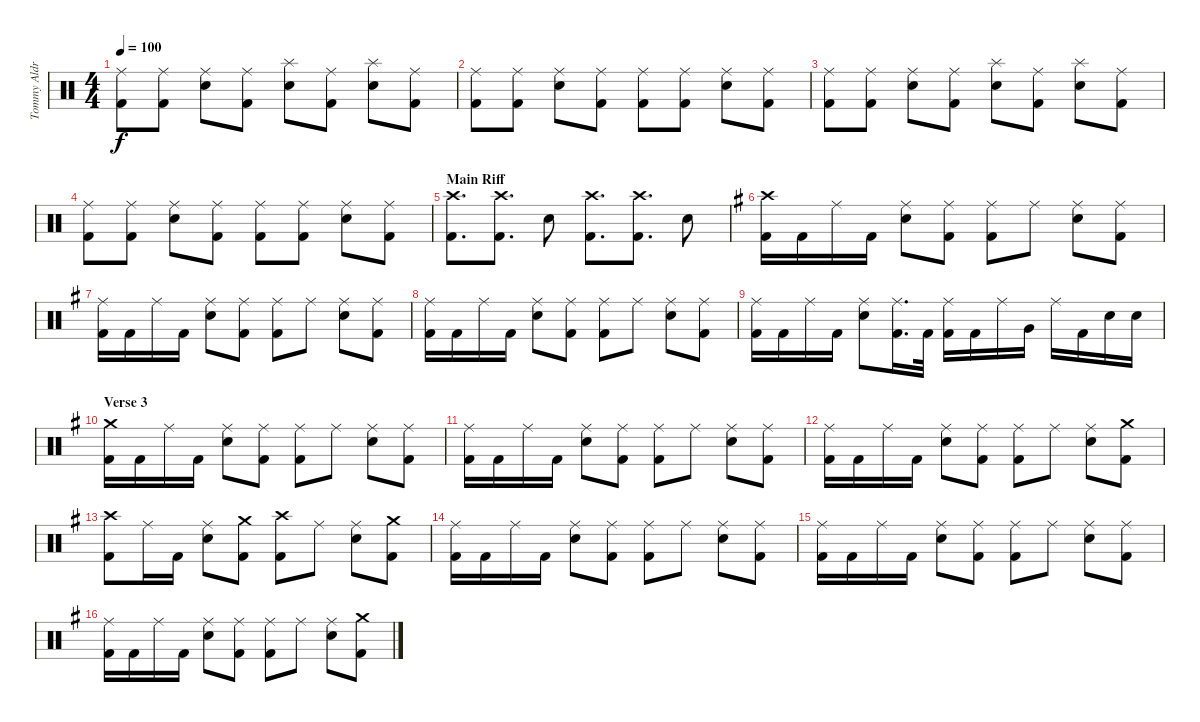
\track ("Tommy Aldridge" "Tommy Aldr") {instrument percussion}
\staff {score}
\articulation defaults
\ts (4 4)
\tempo 100
\clef neutral
\ks aminor
("Ride (middle)" "Kick (hit) 2").8{dy f} ("Ride (middle)" "Kick (hit) 2").8 ("Ride (middle)" "Electric Snare (hit)").8 ("Ride (middle)" "Kick (hit) 2").8 ("Splash (hit)" "Electric Snare (hit)").8 ("Ride (middle)" "Kick (hit) 2").8 ("Splash (hit)" "Electric Snare (hit)").8 ("Ride (middle)" "Kick (hit) 2").8 |
("Ride (middle)" "Kick (hit) 2").8 ("Ride (middle)" "Kick (hit) 2").8 ("Ride (middle)" "Electric Snare (hit)").8 ("Ride (middle)" "Kick (hit) 2").8 ("Ride (middle)" "Kick (hit) 2").8 ("Ride (middle)" "Kick (hit) 2").8 ("Ride (middle)" "Electric Snare (hit)").8 ("Ride (middle)" "Kick (hit) 2").8 |
("Ride (middle)" "Kick (hit) 2").8 ("Ride (middle)" "Kick (hit) 2").8 ("Ride (middle)" "Electric Snare (hit)").8 ("Ride (middle)" "Kick (hit) 2").8 ("Splash (hit)" "Electric Snare (hit)").8 ("Ride (middle)" "Kick (hit) 2").8 ("Splash (hit)" "Electric Snare (hit)").8 ("Ride (middle)" "Kick (hit) 2").8 |
("Ride (middle)" "Kick (hit) 2").8 ("Ride (middle)" "Kick (hit) 2").8 ("Ride (middle)" "Electric Snare (hit)").8 ("Ride (middle)" "Kick (hit) 2").8 ("Ride (middle)" "Kick (hit) 2").8 ("Ride (middle)" "Kick (hit) 2").8 ("Ride (middle)" "Electric Snare (hit)").8 ("Ride (middle)" "Kick (hit) 2").8 |
\section ("" "Main Riff")
("Crash high (hit)" "Kick (hit) 2").8{d} ("Crash high (hit)" "Kick (hit) 2").8{d} "Electric Snare (hit)".8 ("Crash high (hit)" "Kick (hit) 2").8{d} ("Crash high (hit)" "Kick (hit) 2").8{d} "Electric Snare (hit)".8 |
\ks eminor
("Crash high (hit)" "Kick (hit) 2").16 "Kick (hit) 2".16 "Ride (middle)".16 "Kick (hit) 2".16 ("Ride (middle)" "Electric Snare (hit)").8 ("Ride (middle)" "Kick (hit) 2").8 ("Ride (middle)" "Kick (hit) 2").8 "Ride (middle)".8 ("Ride (middle)" "Electric Snare (hit)").8 ("Ride (middle)" "Kick (hit) 2").8 |
("Ride (middle)" "Kick (hit) 2").16 "Kick (hit) 2".16 "Ride (middle)".16 "Kick (hit) 2".16 ("Ride (middle)" "Electric Snare (hit)").8 ("Ride (middle)" "Kick (hit) 2").8 ("Ride (middle)" "Kick (hit) 2").8 "Ride (middle)".8 ("Ride (middle)" "Electric Snare (hit)").8 ("Ride (middle)" "Kick (hit) 2").8 |
("Ride (middle)" "Kick (hit) 2").16 "Kick (hit) 2".16 "Ride (middle)".16 "Kick (hit) 2".16 ("Ride (middle)" "Electric Snare (hit)").8 ("Ride (middle)" "Kick (hit) 2").8 ("Ride (middle)" "Kick (hit) 2").8 "Ride (middle)".8 ("Ride (middle)" "Electric Snare (hit)").8 ("Ride (middle)" "Kick (hit) 2").8 |
("Ride (middle)" "Kick (hit) 2").16 "Kick (hit) 2".16 "Ride (middle)".16 "Kick (hit) 2".16 ("Ride (middle)" "Electric Snare (hit)").8 ("Ride (middle)" "Kick (hit) 2").16{d} "Kick (hit) 2".32 ("Ride (middle)" "Kick (hit) 2").16 "Kick (hit) 2".16 "Ride (middle)".16 "Very Low Tom (hit)".16 "Ride (middle)".16 "Kick (hit) 2".16 "Electric Snare (hit)".16 "Electric Snare (hit)".16 |
\section ("" "Verse 3")
("Crash medium (hit)" "Kick (hit) 2").16 "Kick (hit) 2".16 "Ride (middle)".16 "Kick (hit) 2".16 ("Ride (middle)" "Electric Snare (hit)").8 ("Ride (middle)" "Kick (hit) 2").8 ("Ride (middle)" "Kick (hit) 2").8 "Ride (middle)".8 ("Ride (middle)" "Electric Snare (hit)").8 ("Ride (middle)" "Kick (hit) 2").8 |
("Ride (middle)" "Kick (hit) 2").16 "Kick (hit) 2".16 "Ride (middle)".16 "Kick (hit) 2".16 ("Ride (middle)" "Electric Snare (hit)").8 ("Ride (middle)" "Kick (hit) 2").8 ("Ride (middle)" "Kick (hit) 2").8 "Ride (middle)".8 ("Ride (middle)" "Electric Snare (hit)").8 ("Ride (middle)" "Kick (hit) 2").8 |
("Ride (middle)" "Kick (hit) 2").16 "Kick (hit) 2".16 "Ride (middle)".16 "Kick (hit) 2".16 ("Ride (middle)" "Electric Snare (hit)").8 ("Ride (middle)" "Kick (hit) 2").8 ("Ride (middle)" "Kick (hit) 2").8 "Ride (middle)".8 ("Ride (middle)" "Electric Snare (hit)").8 ("Crash medium (hit)" "Kick (hit) 2").8 |
("Crash high (hit)" "Kick (hit) 2").8 "Ride (middle)".16 "Kick (hit) 2".16 ("Ride (middle)" "Electric Snare (hit)").8 ("Crash medium (hit)" "Kick (hit) 2").8 ("Crash high (hit)" "Kick (hit) 2").8 "Ride (middle)".8 ("Ride (middle)" "Electric Snare (hit)").8 ("Crash medium (hit)" "Kick (hit) 2").8 |
("Ride (middle)" "Kick (hit) 2").16 "Kick (hit) 2".16 "Ride (middle)".16 "Kick (hit) 2".16 ("Ride (middle)" "Electric Snare (hit)").8 ("Ride (middle)" "Kick (hit) 2").8 ("Ride (middle)" "Kick (hit) 2").8 "Ride (middle)".8 ("Ride (middle)" "Electric Snare (hit)").8 ("Ride (middle)" "Kick (hit) 2").8 |
("Ride (middle)" "Kick (hit) 2").16 "Kick (hit) 2".16 "Ride (middle)".16 "Kick (hit) 2".16 ("Ride (middle)" "Electric Snare (hit)").8 ("Ride (middle)" "Kick (hit) 2").8 ("Ride (middle)" "Kick (hit) 2").8 "Ride (middle)".8 ("Ride (middle)" "Electric Snare (hit)").8 ("Ride (middle)" "Kick (hit) 2").8 |
("Ride (middle)" "Kick (hit) 2").16 "Kick (hit) 2".16 "Ride (middle)".16 "Kick (hit) 2".16 ("Ride (middle)" "Electric Snare (hit)").8 ("Ride (middle)" "Kick (hit) 2").8 ("Ride (middle)" "Kick (hit) 2").8 "Ride (middle)".8 ("Ride (middle)" "Electric Snare (hit)").8 ("Crash medium (hit)" "Kick (hit) 2").8
